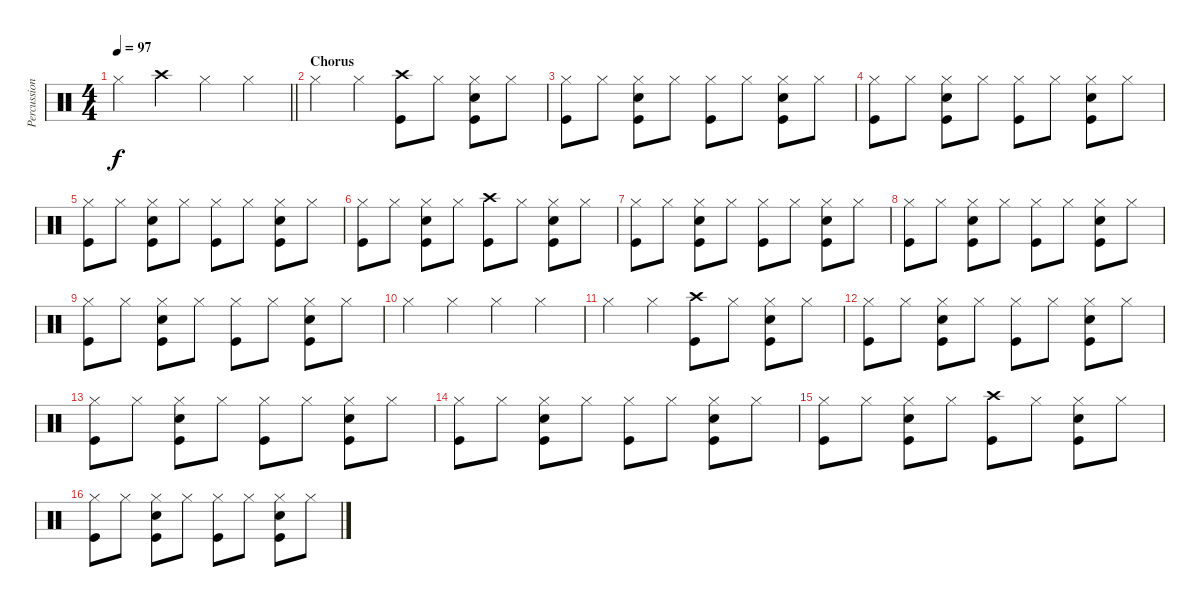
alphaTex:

\track ("Percussion" "Percussion") {instrument percussion}
\staff {score}
\articulation defaults
\ts (4 4)
\tempo 97
\clef neutral
\barLineRight lightlight
\ks c "Hi-Hat (closed)".4{dy f} "Crash high (hit)".4 "Hi-Hat (closed)".4 "Hi-Hat (closed)".4
|
\section ("" "Chorus")
"Hi-Hat (closed)".4 "Hi-Hat (closed)".4 ("Crash high (hit)" "Kick (hit)").8 "Hi-Hat (closed)".8 ("Hi-Hat (closed)" "Kick (hit)" "Snare (hit) 2").8 "Hi-Hat (closed)".8 |
("Hi-Hat (closed)" "Kick (hit)").8 "Hi-Hat (closed)".8 ("Hi-Hat (closed)" "Kick (hit)" "Snare (hit) 2").8 "Hi-Hat (closed)".8 ("Hi-Hat (closed)" "Kick (hit)").8 "Hi-Hat (closed)".8 ("Hi-Hat (closed)" "Kick (hit)" "Snare (hit) 2").8 "Hi-Hat (closed)".8 |
("Hi-Hat (closed)" "Kick (hit)").8 "Hi-Hat (closed)".8 ("Hi-Hat (closed)" "Kick (hit)" "Snare (hit) 2").8 "Hi-Hat (closed)".8 ("Hi-Hat (closed)" "Kick (hit)").8 "Hi-Hat (closed)".8 ("Hi-Hat (closed)" "Kick (hit)" "Snare (hit) 2").8 "Hi-Hat (closed)".8 |
("Hi-Hat (closed)" "Kick (hit)").8 "Hi-Hat (closed)".8 ("Hi-Hat (closed)" "Kick (hit)" "Snare (hit) 2").8 "Hi-Hat (closed)".8 ("Hi-Hat (closed)" "Kick (hit)").8 "Hi-Hat (closed)".8 ("Hi-Hat (closed)" "Kick (hit)" "Snare (hit) 2").8 "Hi-Hat (closed)".8 |
("Hi-Hat (closed)" "Kick (hit)").8 "Hi-Hat (closed)".8 ("Hi-Hat (closed)" "Kick (hit)" "Snare (hit) 2").8 "Hi-Hat (closed)".8 ("Crash high (hit)" "Kick (hit)").8 "Hi-Hat (closed)".8 ("Hi-Hat (closed)" "Kick (hit)" "Snare (hit) 2").8 "Hi-Hat (closed)".8 |
("Hi-Hat (closed)" "Kick (hit)").8 "Hi-Hat (closed)".8 ("Hi-Hat (closed)" "Kick (hit)" "Snare (hit) 2").8 "Hi-Hat (closed)".8 ("Hi-Hat (closed)" "Kick (hit)").8 "Hi-Hat (closed)".8 ("Hi-Hat (closed)" "Kick (hit)" "Snare (hit) 2").8 "Hi-Hat (closed)".8 |
("Hi-Hat (closed)" "Kick (hit)").8 "Hi-Hat (closed)".8 ("Hi-Hat (closed)" "Kick (hit)" "Snare (hit) 2").8 "Hi-Hat (closed)".8 ("Hi-Hat (closed)" "Kick (hit)").8 "Hi-Hat (closed)".8 ("Hi-Hat (closed)" "Kick (hit)" "Snare (hit) 2").8 "Hi-Hat (closed)".8 |
("Hi-Hat (closed)" "Kick (hit)").8 "Hi-Hat (closed)".8 ("Hi-Hat (closed)" "Kick (hit)" "Snare (hit) 2").8 "Hi-Hat (closed)".8 ("Hi-Hat (closed)" "Kick (hit)").8 "Hi-Hat (closed)".8 ("Hi-Hat (closed)" "Kick (hit)" "Snare (hit) 2").8 "Hi-Hat (closed)".8 |
"Hi-Hat (closed)".4 "Hi-Hat (closed)".4 "Hi-Hat (closed)".4 "Hi-Hat (closed)".4 |
"Hi-Hat (closed)".4 "Hi-Hat (closed)".4 ("Crash high (hit)" "Kick (hit)").8 "Hi-Hat (closed)".8 ("Hi-Hat (closed)" "Kick (hit)" "Snare (hit) 2").8 "Hi-Hat (closed)".8 |
("Hi-Hat (closed)" "Kick (hit)").8 "Hi-Hat (closed)".8 ("Hi-Hat (closed)" "Kick (hit)" "Snare (hit) 2").8 "Hi-Hat (closed)".8 ("Hi-Hat (closed)" "Kick (hit)").8 "Hi-Hat (closed)".8 ("Hi-Hat (closed)" "Kick (hit)" "Snare (hit) 2").8 "Hi-Hat (closed)".8 |
("Hi-Hat (closed)" "Kick (hit)").8 "Hi-Hat (closed)".8 ("Hi-Hat (closed)" "Kick (hit)" "Snare (hit) 2").8 "Hi-Hat (closed)".8 ("Hi-Hat (closed)" "Kick (hit)").8 "Hi-Hat (closed)".8 ("Hi-Hat (closed)" "Kick (hit)" "Snare (hit) 2").8 "Hi-Hat (closed)".8 |
("Hi-Hat (closed)" "Kick (hit)").8 "Hi-Hat (closed)".8 ("Hi-Hat (closed)" "Kick (hit)" "Snare (hit) 2").8 "Hi-Hat (closed)".8 ("Hi-Hat (closed)" "Kick (hit)").8 "Hi-Hat (closed)".8 ("Hi-Hat (closed)" "Kick (hit)" "Snare (hit) 2").8 "Hi-Hat (closed)".8 |
("Hi-Hat (closed)" "Kick (hit)").8 "Hi-Hat (closed)".8 ("Hi-Hat (closed)" "Kick (hit)" "Snare (hit) 2").8 "Hi-Hat (closed)".8 ("Crash high (hit)" "Kick (hit)").8 "Hi-Hat (closed)".8 ("Hi-Hat (closed)" "Kick (hit)" "Snare (hit) 2").8 "Hi-Hat (closed)".8 |
("Hi-Hat (closed)" "Kick (hit)").8 "Hi-Hat (closed)".8 ("Hi-Hat (closed)" "Kick (hit)" "Snare (hit) 2").8 "Hi-Hat (closed)".8 ("Hi-Hat (closed)" "Kick (hit)").8 "Hi-Hat (closed)".8 ("Hi-Hat (closed)" "Kick (hit)" "Snare (hit) 2").8 "Hi-Hat (closed)".8
